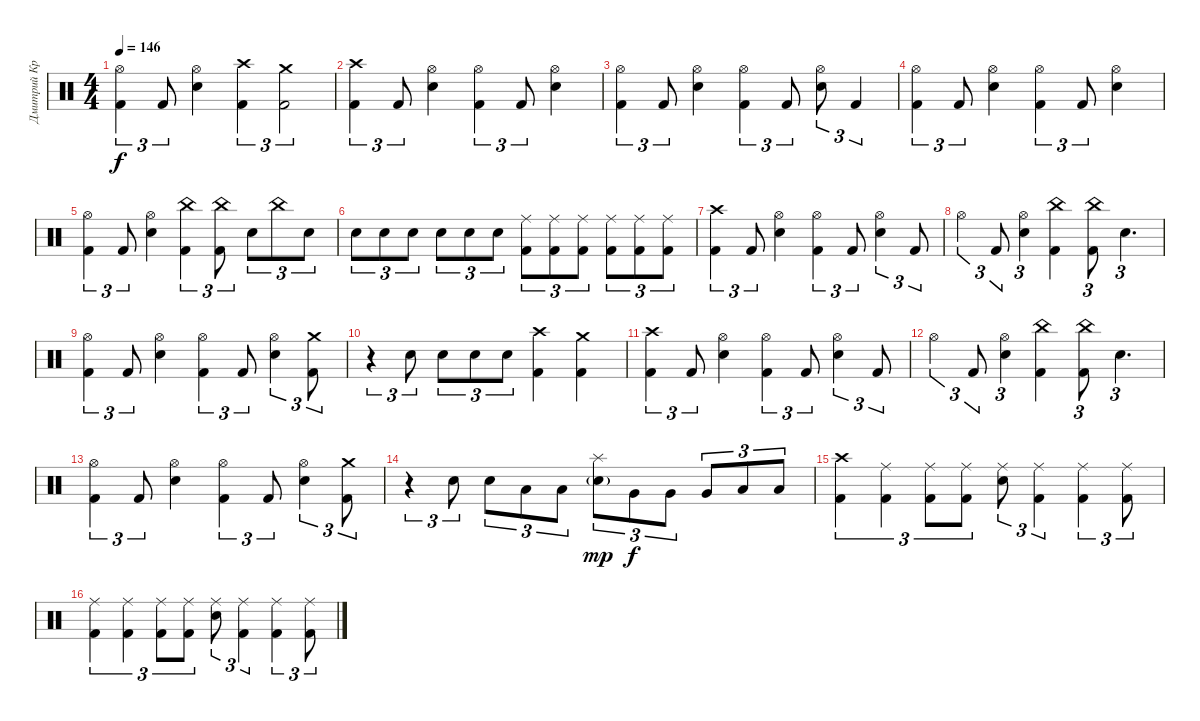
\track ("Дмитрий Кривенков" "Дмитрий Кр") {instrument percussion}
\staff {score}
\articulation defaults
\ts (4 4)
\tempo 146
\clef neutral
\ks c
("Hi-Hat (open)" "Kick (hit) 2").4{tu (3 2) dy f} "Kick (hit) 2".8{tu (3 2)} ("Hi-Hat (open)" "Electric Snare (hit)").4 ("Crash high (hit)" "Kick (hit) 2").4{tu (3 2)} ("Crash medium (hit)" "Kick (hit) 2").2{tu (3 2)} |
("Crash high (hit)" "Kick (hit) 2").4{tu (3 2)} "Kick (hit) 2".8{tu (3 2)} ("Hi-Hat (open)" "Electric Snare (hit)").4 ("Hi-Hat (open)" "Kick (hit) 2").4{tu (3 2)} "Kick (hit) 2".8{tu (3 2)} ("Hi-Hat (open)" "Electric Snare (hit)").4 |
("Hi-Hat (open)" "Kick (hit) 2").4{tu (3 2)} "Kick (hit) 2".8{tu (3 2)} ("Hi-Hat (open)" "Electric Snare (hit)").4 ("Hi-Hat (open)" "Kick (hit) 2").4{tu (3 2)} "Kick (hit) 2".8{tu (3 2)} ("Hi-Hat (open)" "Electric Snare (hit)").8{tu (3 2)} "Kick (hit) 2".4{tu (3 2)} |
("Hi-Hat (open)" "Kick (hit) 2").4{tu (3 2)} "Kick (hit) 2".8{tu (3 2)} ("Hi-Hat (open)" "Electric Snare (hit)").4 ("Hi-Hat (open)" "Kick (hit) 2").4{tu (3 2)} "Kick (hit) 2".8{tu (3 2)} ("Hi-Hat (open)" "Electric Snare (hit)").4 |
("Hi-Hat (open)" "Kick (hit) 2").4{tu (3 2)} "Kick (hit) 2".8{tu (3 2)} ("Hi-Hat (open)" "Electric Snare (hit)").4 ("China (hit)" "Kick (hit) 2").4{tu (3 2)} ("China (hit)" "Kick (hit) 2").8{tu (3 2)} "Electric Snare (hit)".8{tu (3 2)} "China (hit)".8{tu (3 2)} "Electric Snare (hit)".8{tu (3 2)} |
"Electric Snare (hit)".8{tu (3 2)} "Electric Snare (hit)".8{tu (3 2)} "Electric Snare (hit)".8{tu (3 2)} "Electric Snare (hit)".8{tu (3 2)} "Electric Snare (hit)".8{tu (3 2)} "Electric Snare (hit)".8{tu (3 2)} ("Ride (middle)" "Kick (hit) 2").8{tu (3 2)} ("Ride (middle)" "Kick (hit) 2").8{tu (3 2)} ("Ride (middle)" "Kick (hit) 2").8{tu (3 2)} ("Ride (middle)" "Kick (hit) 2").8{tu (3 2)} ("Ride (middle)" "Kick (hit) 2").8{tu (3 2)} ("Ride (middle)" "Kick (hit) 2").8{tu (3 2)} |
("Crash high (hit)" "Kick (hit) 2").4{tu (3 2)} "Kick (hit) 2".8{tu (3 2)} ("Hi-Hat (open)" "Electric Snare (hit)").4 ("Hi-Hat (open)" "Kick (hit) 2").4{tu (3 2)} "Kick (hit) 2".8{tu (3 2)} ("Hi-Hat (open)" "Electric Snare (hit)").4{tu (3 2)} "Kick (hit) 2".8{tu (3 2)} |
"Hi-Hat (open)".4{tu (3 2)} "Kick (hit) 2".8{tu (3 2)} ("Hi-Hat (open)" "Electric Snare (hit)").4{tu (3 2)} ("China (hit)" "Kick (hit) 2").4 ("China (hit)" "Kick (hit) 2").8{tu (3 2)} "Electric Snare (hit)".4{d tu (3 2)} |
("Hi-Hat (open)" "Kick (hit) 2").4{tu (3 2)} "Kick (hit) 2".8{tu (3 2)} ("Hi-Hat (open)" "Electric Snare (hit)").4 ("Hi-Hat (open)" "Kick (hit) 2").4{tu (3 2)} "Kick (hit) 2".8{tu (3 2)} ("Hi-Hat (open)" "Electric Snare (hit)").4{tu (3 2)} ("Crash medium (hit)" "Kick (hit) 2").8{tu (3 2)} |
r.4{tu (3 2)} "Electric Snare (hit)".8{tu (3 2)} "Electric Snare (hit)".8{tu (3 2)} "Electric Snare (hit)".8{tu (3 2)} "Electric Snare (hit)".8{tu (3 2)} ("Crash high (hit)" "Kick (hit) 2").4 ("Crash medium (hit)" "Kick (hit) 2").4 |
("Crash high (hit)" "Kick (hit) 2").4{tu (3 2)} "Kick (hit) 2".8{tu (3 2)} ("Hi-Hat (open)" "Electric Snare (hit)").4 ("Hi-Hat (open)" "Kick (hit) 2").4{tu (3 2)} "Kick (hit) 2".8{tu (3 2)} ("Hi-Hat (open)" "Electric Snare (hit)").4{tu (3 2)} "Kick (hit) 2".8{tu (3 2)} |
"Hi-Hat (open)".4{tu (3 2)} "Kick (hit) 2".8{tu (3 2)} ("Hi-Hat (open)" "Electric Snare (hit)").4{tu (3 2)} ("China (hit)" "Kick (hit) 2").4 ("China (hit)" "Kick (hit) 2").8{tu (3 2)} "Electric Snare (hit)".4{d tu (3 2)} |
("Hi-Hat (open)" "Kick (hit) 2").4{tu (3 2)} "Kick (hit) 2".8{tu (3 2)} ("Hi-Hat (open)" "Electric Snare (hit)").4 ("Hi-Hat (open)" "Kick (hit) 2").4{tu (3 2)} "Kick (hit) 2".8{tu (3 2)} ("Hi-Hat (open)" "Electric Snare (hit)").4{tu (3 2)} ("Crash medium (hit)" "Kick (hit) 2").8{tu (3 2)} |
r.4{tu (3 2)} "Electric Snare (hit)".8{tu (3 2)} "Electric Snare (hit)".8{tu (3 2)} "Low Tom (hit)".8{tu (3 2)} "Low Tom (hit)".8{tu (3 2)} ("Splash (hit)" "Electric Snare (hit)"{g}).8{tu (3 2) dy mp} "Very Low Tom (hit)".8{tu (3 2) dy f} "Very Low Tom (hit)".8{tu (3 2)} "Very Low Tom (hit)".8{tu (3 2)} "Low Floor Tom (hit)".8{tu (3 2)} "Low Floor Tom (hit)".8{tu (3 2)} |
("Crash high (hit)" "Kick (hit) 2").4{tu (3 2)} ("Ride (middle)" "Kick (hit) 2").4{tu (3 2)} ("Ride (middle)" "Kick (hit) 2").8{tu (3 2)} ("Ride (middle)" "Kick (hit) 2").8{tu (3 2)} ("Ride (middle)" "Electric Snare (hit)").8{tu (3 2)} ("Ride (middle)" "Kick (hit) 2").4{tu (3 2)} ("Ride (middle)" "Kick (hit) 2").4{tu (3 2)} ("Ride (middle)" "Kick (hit) 2").8{tu (3 2)} |
("Ride (middle)" "Kick (hit) 2").4{tu (3 2)} ("Ride (middle)" "Kick (hit) 2").4{tu (3 2)} ("Ride (middle)" "Kick (hit) 2").8{tu (3 2)} ("Ride (middle)" "Kick (hit) 2").8{tu (3 2)} ("Ride (middle)" "Electric Snare (hit)").8{tu (3 2)} ("Ride (middle)" "Kick (hit) 2").4{tu (3 2)} ("Ride (middle)" "Kick (hit) 2").4{tu (3 2)} ("Ride (middle)" "Kick (hit) 2").8{tu (3 2)}
